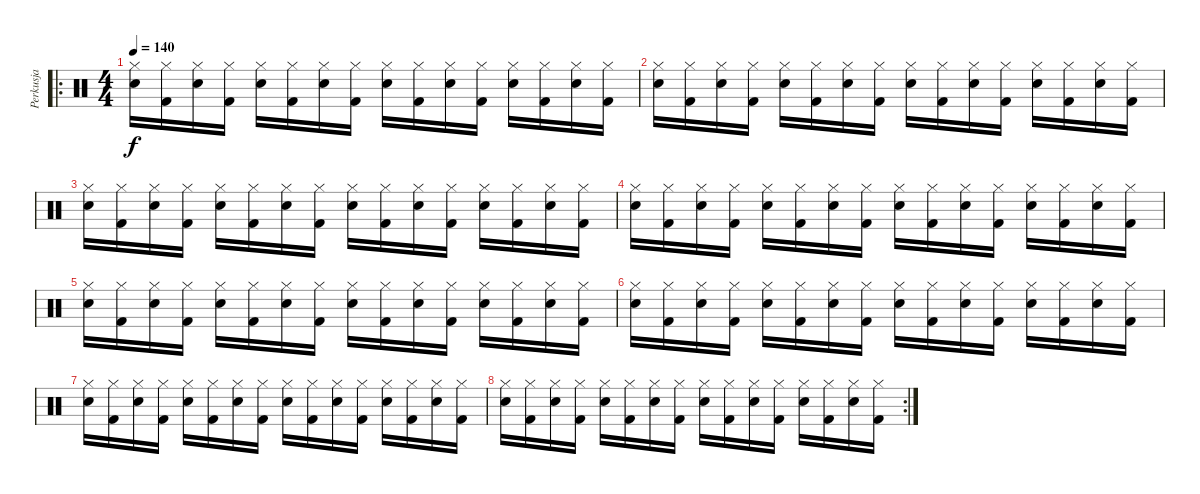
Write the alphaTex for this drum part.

\track ("Perkusja" "Perkusja") {instrument percussion}
\staff {score}
\articulation defaults
\ro
\ts (4 4)
\tempo 140
\clef neutral
\ks c
("Hi-Hat (closed)" "Snare (hit) 2").16{dy f} ("Hi-Hat (closed)" "Kick (hit) 2").16 ("Hi-Hat (closed)" "Snare (hit) 2").16 ("Hi-Hat (closed)" "Kick (hit) 2").16 ("Hi-Hat (closed)" "Snare (hit) 2").16 ("Hi-Hat (closed)" "Kick (hit) 2").16 ("Hi-Hat (closed)" "Snare (hit) 2").16 ("Hi-Hat (closed)" "Kick (hit) 2").16 ("Hi-Hat (closed)" "Snare (hit) 2").16 ("Hi-Hat (closed)" "Kick (hit) 2").16 ("Hi-Hat (closed)" "Snare (hit) 2").16 ("Hi-Hat (closed)" "Kick (hit) 2").16 ("Hi-Hat (closed)" "Snare (hit) 2").16 ("Hi-Hat (closed)" "Kick (hit) 2").16 ("Hi-Hat (closed)" "Snare (hit) 2").16 ("Hi-Hat (closed)" "Kick (hit) 2").16 |
("Hi-Hat (closed)" "Snare (hit) 2").16 ("Hi-Hat (closed)" "Kick (hit) 2").16 ("Hi-Hat (closed)" "Snare (hit) 2").16 ("Hi-Hat (closed)" "Kick (hit) 2").16 ("Hi-Hat (closed)" "Snare (hit) 2").16 ("Hi-Hat (closed)" "Kick (hit) 2").16 ("Hi-Hat (closed)" "Snare (hit) 2").16 ("Hi-Hat (closed)" "Kick (hit) 2").16 ("Hi-Hat (closed)" "Snare (hit) 2").16 ("Hi-Hat (closed)" "Kick (hit) 2").16 ("Hi-Hat (closed)" "Snare (hit) 2").16 ("Hi-Hat (closed)" "Kick (hit) 2").16 ("Hi-Hat (closed)" "Snare (hit) 2").16 ("Hi-Hat (closed)" "Kick (hit) 2").16 ("Hi-Hat (closed)" "Snare (hit) 2").16 ("Hi-Hat (closed)" "Kick (hit) 2").16 |
("Hi-Hat (closed)" "Snare (hit) 2").16 ("Hi-Hat (closed)" "Kick (hit) 2").16 ("Hi-Hat (closed)" "Snare (hit) 2").16 ("Hi-Hat (closed)" "Kick (hit) 2").16 ("Hi-Hat (closed)" "Snare (hit) 2").16 ("Hi-Hat (closed)" "Kick (hit) 2").16 ("Hi-Hat (closed)" "Snare (hit) 2").16 ("Hi-Hat (closed)" "Kick (hit) 2").16 ("Hi-Hat (closed)" "Snare (hit) 2").16 ("Hi-Hat (closed)" "Kick (hit) 2").16 ("Hi-Hat (closed)" "Snare (hit) 2").16 ("Hi-Hat (closed)" "Kick (hit) 2").16 ("Hi-Hat (closed)" "Snare (hit) 2").16 ("Hi-Hat (closed)" "Kick (hit) 2").16 ("Hi-Hat (closed)" "Snare (hit) 2").16 ("Hi-Hat (closed)" "Kick (hit) 2").16 |
("Hi-Hat (closed)" "Snare (hit) 2").16 ("Hi-Hat (closed)" "Kick (hit) 2").16 ("Hi-Hat (closed)" "Snare (hit) 2").16 ("Hi-Hat (closed)" "Kick (hit) 2").16 ("Hi-Hat (closed)" "Snare (hit) 2").16 ("Hi-Hat (closed)" "Kick (hit) 2").16 ("Hi-Hat (closed)" "Snare (hit) 2").16 ("Hi-Hat (closed)" "Kick (hit) 2").16 ("Hi-Hat (closed)" "Snare (hit) 2").16 ("Hi-Hat (closed)" "Kick (hit) 2").16 ("Hi-Hat (closed)" "Snare (hit) 2").16 ("Hi-Hat (closed)" "Kick (hit) 2").16 ("Hi-Hat (closed)" "Snare (hit) 2").16 ("Hi-Hat (closed)" "Kick (hit) 2").16 ("Hi-Hat (closed)" "Snare (hit) 2").16 ("Hi-Hat (closed)" "Kick (hit) 2").16 |
("Hi-Hat (closed)" "Snare (hit) 2").16 ("Hi-Hat (closed)" "Kick (hit) 2").16 ("Hi-Hat (closed)" "Snare (hit) 2").16 ("Hi-Hat (closed)" "Kick (hit) 2").16 ("Hi-Hat (closed)" "Snare (hit) 2").16 ("Hi-Hat (closed)" "Kick (hit) 2").16 ("Hi-Hat (closed)" "Snare (hit) 2").16 ("Hi-Hat (closed)" "Kick (hit) 2").16 ("Hi-Hat (closed)" "Snare (hit) 2").16 ("Hi-Hat (closed)" "Kick (hit) 2").16 ("Hi-Hat (closed)" "Snare (hit) 2").16 ("Hi-Hat (closed)" "Kick (hit) 2").16 ("Hi-Hat (closed)" "Snare (hit) 2").16 ("Hi-Hat (closed)" "Kick (hit) 2").16 ("Hi-Hat (closed)" "Snare (hit) 2").16 ("Hi-Hat (closed)" "Kick (hit) 2").16 |
("Hi-Hat (closed)" "Snare (hit) 2").16 ("Hi-Hat (closed)" "Kick (hit) 2").16 ("Hi-Hat (closed)" "Snare (hit) 2").16 ("Hi-Hat (closed)" "Kick (hit) 2").16 ("Hi-Hat (closed)" "Snare (hit) 2").16 ("Hi-Hat (closed)" "Kick (hit) 2").16 ("Hi-Hat (closed)" "Snare (hit) 2").16 ("Hi-Hat (closed)" "Kick (hit) 2").16 ("Hi-Hat (closed)" "Snare (hit) 2").16 ("Hi-Hat (closed)" "Kick (hit) 2").16 ("Hi-Hat (closed)" "Snare (hit) 2").16 ("Hi-Hat (closed)" "Kick (hit) 2").16 ("Hi-Hat (closed)" "Snare (hit) 2").16 ("Hi-Hat (closed)" "Kick (hit) 2").16 ("Hi-Hat (closed)" "Snare (hit) 2").16 ("Hi-Hat (closed)" "Kick (hit) 2").16 |
("Hi-Hat (closed)" "Snare (hit) 2").16 ("Hi-Hat (closed)" "Kick (hit) 2").16 ("Hi-Hat (closed)" "Snare (hit) 2").16 ("Hi-Hat (closed)" "Kick (hit) 2").16 ("Hi-Hat (closed)" "Snare (hit) 2").16 ("Hi-Hat (closed)" "Kick (hit) 2").16 ("Hi-Hat (closed)" "Snare (hit) 2").16 ("Hi-Hat (closed)" "Kick (hit) 2").16 ("Hi-Hat (closed)" "Snare (hit) 2").16 ("Hi-Hat (closed)" "Kick (hit) 2").16 ("Hi-Hat (closed)" "Snare (hit) 2").16 ("Hi-Hat (closed)" "Kick (hit) 2").16 ("Hi-Hat (closed)" "Snare (hit) 2").16 ("Hi-Hat (closed)" "Kick (hit) 2").16 ("Hi-Hat (closed)" "Snare (hit) 2").16 ("Hi-Hat (closed)" "Kick (hit) 2").16 |
\rc 2
("Hi-Hat (closed)" "Snare (hit) 2").16 ("Hi-Hat (closed)" "Kick (hit) 2").16 ("Hi-Hat (closed)" "Snare (hit) 2").16 ("Hi-Hat (closed)" "Kick (hit) 2").16 ("Hi-Hat (closed)" "Snare (hit) 2").16 ("Hi-Hat (closed)" "Kick (hit) 2").16 ("Hi-Hat (closed)" "Snare (hit) 2").16 ("Hi-Hat (closed)" "Kick (hit) 2").16 ("Hi-Hat (closed)" "Snare (hit) 2").16 ("Hi-Hat (closed)" "Kick (hit) 2").16 ("Hi-Hat (closed)" "Snare (hit) 2").16 ("Hi-Hat (closed)" "Kick (hit) 2").16 ("Hi-Hat (closed)" "Snare (hit) 2").16 ("Hi-Hat (closed)" "Kick (hit) 2").16 ("Hi-Hat (closed)" "Snare (hit) 2").16 ("Hi-Hat (closed)" "Kick (hit) 2").16
